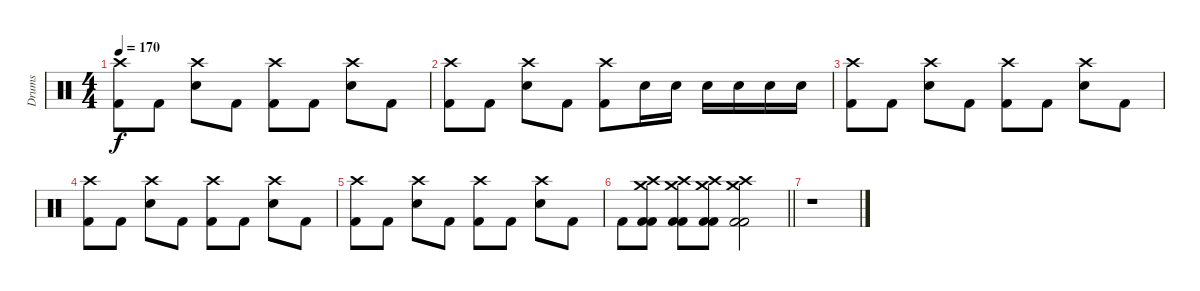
\track ("Drums" "Drums") {instrument percussion}
\staff {score}
\articulation defaults
\ts (4 4)
\tempo 170
\clef neutral
\ks c
("Crash high (hit)" "Kick (hit) 2").8{dy f} "Kick (hit) 2".8 ("Crash high (hit)" "Snare (hit) 2").8 "Kick (hit) 2".8 ("Crash high (hit)" "Kick (hit) 2").8 "Kick (hit) 2".8 ("Crash high (hit)" "Snare (hit) 2").8 "Kick (hit) 2".8 |
("Crash high (hit)" "Kick (hit) 2").8 "Kick (hit) 2".8 ("Crash high (hit)" "Snare (hit) 2").8 "Kick (hit) 2".8 ("Crash high (hit)" "Kick (hit) 2").8 "Snare (hit) 2".16 "Snare (hit) 2".16 "Snare (hit) 2".16 "Snare (hit) 2".16 "Snare (hit) 2".16 "Snare (hit) 2".16 |
("Crash high (hit)" "Kick (hit) 2").8 "Kick (hit) 2".8 ("Crash high (hit)" "Snare (hit) 2").8 "Kick (hit) 2".8 ("Crash high (hit)" "Kick (hit) 2").8 "Kick (hit) 2".8 ("Crash high (hit)" "Snare (hit) 2").8 "Kick (hit) 2".8 |
("Crash high (hit)" "Kick (hit) 2").8 "Kick (hit) 2".8 ("Crash high (hit)" "Snare (hit) 2").8 "Kick (hit) 2".8 ("Crash high (hit)" "Kick (hit) 2").8 "Kick (hit) 2".8 ("Crash high (hit)" "Snare (hit) 2").8 "Kick (hit) 2".8 |
("Crash high (hit)" "Kick (hit) 2").8 "Kick (hit) 2".8 ("Crash high (hit)" "Snare (hit) 2").8 "Kick (hit) 2".8 ("Crash high (hit)" "Kick (hit) 2").8 "Kick (hit) 2".8 ("Crash high (hit)" "Snare (hit) 2").8 "Kick (hit) 2".8 |
\barLineRight lightlight "Kick (hit) 2".8
("Crash high (hit)" "Crash medium (hit)" "Kick (hit) 2" "Kick (hit) 2").8 ("Crash high (hit)" "Crash medium (hit)" "Kick (hit) 2" "Kick (hit) 2").8 ("Crash high (hit)" "Crash medium (hit)" "Kick (hit) 2" "Kick (hit) 2").8 ("Crash high (hit)" "Crash medium (hit)" "Kick (hit) 2" "Kick (hit) 2").2 |
r.1
